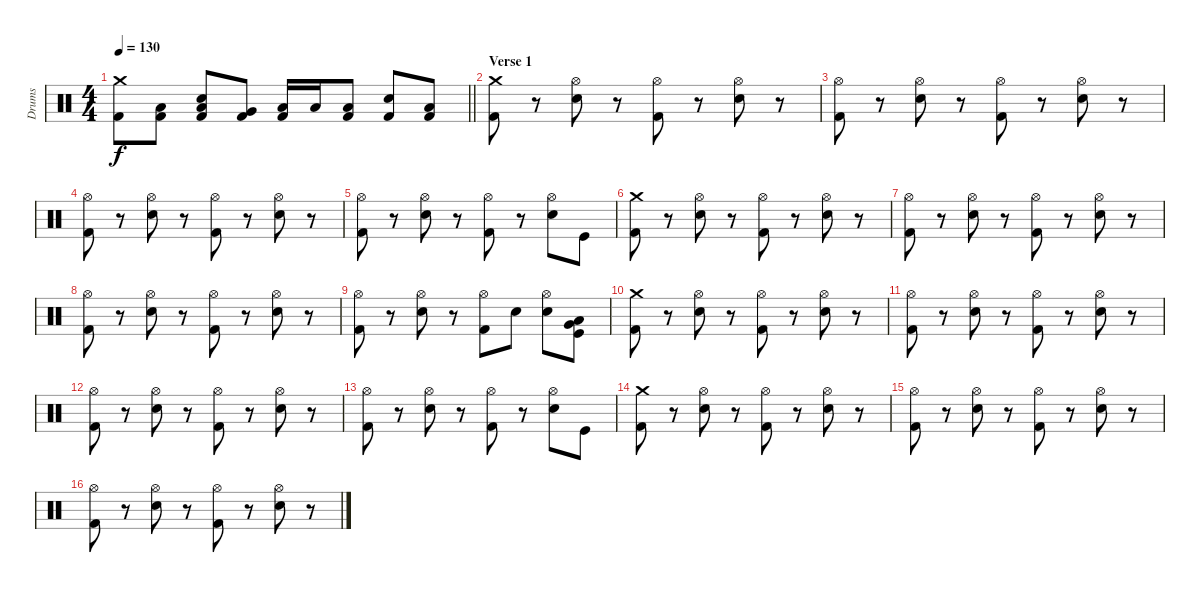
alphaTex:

\track ("Drums" "Drums") {instrument percussion}
\staff {score}
\articulation defaults
\ts (4 4)
\tempo 130
\clef neutral
\barLineRight lightlight
\ks c
("Crash medium (hit)" "Kick (hit) 2").8{dy f} ("Low Floor Tom (hit)" "Kick (hit) 2").8 ("Low Floor Tom (hit)" "Snare (hit) 2" "Kick (hit) 2").8 ("Very Low Tom (hit)" "Kick (hit) 2").8 ("Low Floor Tom (hit)" "Kick (hit) 2").16 "Low Floor Tom (hit)".16 ("Low Floor Tom (hit)" "Kick (hit) 2").8 ("Snare (hit) 2" "Kick (hit) 2").8 ("Low Tom (hit)" "Kick (hit) 2").8 |
\section ("" "Verse 1")
("Crash medium (hit)" "Kick (hit) 2").8 r.8 ("Hi-Hat (open)" "Snare (hit) 2").8 r.8 ("Hi-Hat (open)" "Kick (hit) 2").8 r.8 ("Hi-Hat (open)" "Snare (hit) 2").8 r.8 |
("Hi-Hat (open)" "Kick (hit) 2").8 r.8 ("Hi-Hat (open)" "Snare (hit) 2").8 r.8 ("Hi-Hat (open)" "Kick (hit) 2").8 r.8 ("Hi-Hat (open)" "Snare (hit) 2").8 r.8 |
("Hi-Hat (open)" "Kick (hit) 2").8 r.8 ("Hi-Hat (open)" "Snare (hit) 2").8 r.8 ("Hi-Hat (open)" "Kick (hit) 2").8 r.8 ("Hi-Hat (open)" "Snare (hit) 2").8 r.8 |
("Hi-Hat (open)" "Kick (hit) 2").8 r.8 ("Hi-Hat (open)" "Snare (hit) 2").8 r.8 ("Hi-Hat (open)" "Kick (hit) 2").8 r.8 ("Hi-Hat (open)" "Snare (hit) 2").8 "Kick (hit)".8 |
("Crash medium (hit)" "Kick (hit) 2").8 r.8 ("Hi-Hat (open)" "Snare (hit) 2").8 r.8 ("Hi-Hat (open)" "Kick (hit) 2").8 r.8 ("Hi-Hat (open)" "Snare (hit) 2").8 r.8 |
("Hi-Hat (open)" "Kick (hit) 2").8 r.8 ("Hi-Hat (open)" "Snare (hit) 2").8 r.8 ("Hi-Hat (open)" "Kick (hit) 2").8 r.8 ("Hi-Hat (open)" "Snare (hit) 2").8 r.8 |
("Hi-Hat (open)" "Kick (hit) 2").8 r.8 ("Hi-Hat (open)" "Snare (hit) 2").8 r.8 ("Hi-Hat (open)" "Kick (hit) 2").8 r.8 ("Hi-Hat (open)" "Snare (hit) 2").8 r.8 |
("Hi-Hat (open)" "Kick (hit) 2").8 r.8 ("Hi-Hat (open)" "Snare (hit) 2").8 r.8 ("Hi-Hat (open)" "Kick (hit) 2").8 "Snare (hit) 2".8 ("Hi-Hat (open)" "Snare (hit) 2").8 ("Low Tom (hit)" "Very Low Tom (hit)" "Kick (hit)").8 |
("Crash medium (hit)" "Kick (hit) 2").8 r.8 ("Hi-Hat (open)" "Snare (hit) 2").8 r.8 ("Hi-Hat (open)" "Kick (hit) 2").8 r.8 ("Hi-Hat (open)" "Snare (hit) 2").8 r.8 |
("Hi-Hat (open)" "Kick (hit) 2").8 r.8 ("Hi-Hat (open)" "Snare (hit) 2").8 r.8 ("Hi-Hat (open)" "Kick (hit) 2").8 r.8 ("Hi-Hat (open)" "Snare (hit) 2").8 r.8 |
("Hi-Hat (open)" "Kick (hit) 2").8 r.8 ("Hi-Hat (open)" "Snare (hit) 2").8 r.8 ("Hi-Hat (open)" "Kick (hit) 2").8 r.8 ("Hi-Hat (open)" "Snare (hit) 2").8 r.8 |
("Hi-Hat (open)" "Kick (hit) 2").8 r.8 ("Hi-Hat (open)" "Snare (hit) 2").8 r.8 ("Hi-Hat (open)" "Kick (hit) 2").8 r.8 ("Hi-Hat (open)" "Snare (hit) 2").8 "Kick (hit)".8 |
("Crash medium (hit)" "Kick (hit) 2").8 r.8 ("Hi-Hat (open)" "Snare (hit) 2").8 r.8 ("Hi-Hat (open)" "Kick (hit) 2").8 r.8 ("Hi-Hat (open)" "Snare (hit) 2").8 r.8 |
("Hi-Hat (open)" "Kick (hit) 2").8 r.8 ("Hi-Hat (open)" "Snare (hit) 2").8 r.8 ("Hi-Hat (open)" "Kick (hit) 2").8 r.8 ("Hi-Hat (open)" "Snare (hit) 2").8 r.8 |
("Hi-Hat (open)" "Kick (hit) 2").8 r.8 ("Hi-Hat (open)" "Snare (hit) 2").8 r.8 ("Hi-Hat (open)" "Kick (hit) 2").8 r.8 ("Hi-Hat (open)" "Snare (hit) 2").8 r.8
